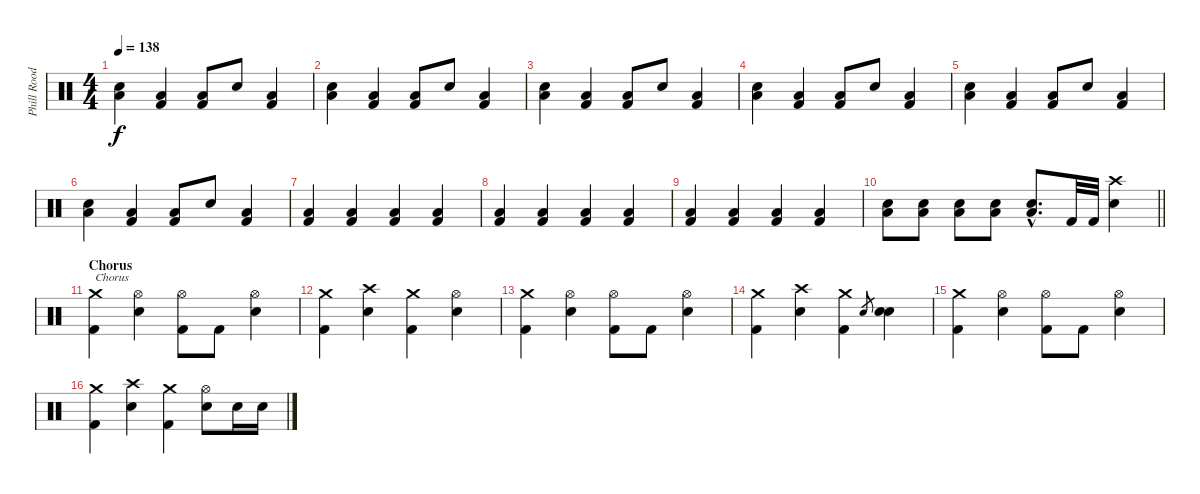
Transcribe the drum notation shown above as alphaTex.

\track ("Phill Rood" "Phill Rood") {instrument percussion}
\staff {score}
\articulation defaults
\ts (4 4)
\tempo 138
\clef neutral
\ks c
("Snare (hit) 2" "Low Tom (hit)").4{dy f} ("Kick (hit) 2" "Low Tom (hit)").4 ("Kick (hit) 2" "Low Tom (hit)").8 "Snare (hit) 2".8 ("Kick (hit) 2" "Low Tom (hit)").4 |
("Snare (hit) 2" "Low Tom (hit)").4 ("Kick (hit) 2" "Low Tom (hit)").4 ("Kick (hit) 2" "Low Tom (hit)").8 "Snare (hit) 2".8 ("Kick (hit) 2" "Low Tom (hit)").4 |
("Snare (hit) 2" "Low Tom (hit)").4 ("Kick (hit) 2" "Low Tom (hit)").4 ("Kick (hit) 2" "Low Tom (hit)").8 "Snare (hit) 2".8 ("Kick (hit) 2" "Low Tom (hit)").4 |
("Snare (hit) 2" "Low Tom (hit)").4 ("Kick (hit) 2" "Low Tom (hit)").4 ("Kick (hit) 2" "Low Tom (hit)").8 "Snare (hit) 2".8 ("Kick (hit) 2" "Low Tom (hit)").4 |
("Snare (hit) 2" "Low Tom (hit)").4 ("Kick (hit) 2" "Low Tom (hit)").4 ("Kick (hit) 2" "Low Tom (hit)").8 "Snare (hit) 2".8 ("Kick (hit) 2" "Low Tom (hit)").4 |
("Snare (hit) 2" "Low Tom (hit)").4 ("Kick (hit) 2" "Low Tom (hit)").4 ("Kick (hit) 2" "Low Tom (hit)").8 "Snare (hit) 2".8 ("Kick (hit) 2" "Low Tom (hit)").4 |
("Kick (hit) 2" "Low Tom (hit)").4 ("Kick (hit) 2" "Low Tom (hit)").4 ("Kick (hit) 2" "Low Tom (hit)").4 ("Kick (hit) 2" "Low Tom (hit)").4 |
("Kick (hit) 2" "Low Tom (hit)").4 ("Kick (hit) 2" "Low Tom (hit)").4 ("Kick (hit) 2" "Low Tom (hit)").4 ("Kick (hit) 2" "Low Tom (hit)").4 |
("Kick (hit) 2" "Low Tom (hit)").4 ("Kick (hit) 2" "Low Tom (hit)").4 ("Kick (hit) 2" "Low Tom (hit)").4 ("Kick (hit) 2" "Low Tom (hit)").4 |
\barLineRight lightlight
("Snare (hit) 2" "Low Tom (hit)").8 ("Snare (hit) 2" "Low Tom (hit)").8 ("Snare (hit) 2" "Low Tom (hit)").8 ("Snare (hit) 2" "Low Tom (hit)").8 ("Snare (hit) 2"{hac} "Low Tom (hit)"{hac}).8{d} "Kick (hit) 2".32 "Kick (hit) 2".32 ("Snare (hit) 2" "Crash high (hit)").4 |
\section ("" "Chorus")
("Kick (hit) 2" "Crash medium (hit)").4{txt "Chorus"} ("Snare (hit) 2" "Hi-Hat (open)").4 ("Kick (hit) 2" "Hi-Hat (open)").8 "Kick (hit) 2".8 ("Snare (hit) 2" "Hi-Hat (open)").4 |
("Kick (hit) 2" "Crash medium (hit)").4 ("Snare (hit) 2" "Crash high (hit)").4 ("Kick (hit) 2" "Crash medium (hit)").4 ("Snare (hit) 2" "Hi-Hat (open)").4 |
("Kick (hit) 2" "Crash medium (hit)").4 ("Snare (hit) 2" "Hi-Hat (open)").4 ("Kick (hit) 2" "Hi-Hat (open)").8 "Kick (hit) 2".8 ("Snare (hit) 2" "Hi-Hat (open)").4 |
("Kick (hit) 2" "Crash medium (hit)").4 ("Snare (hit) 2" "Crash high (hit)").4 ("Kick (hit) 2" "Crash medium (hit)").4 "Snare (hit) 2".8{gr} ("Snare (hit) 2" "Snare (hit) 2").4 |
("Kick (hit) 2" "Crash medium (hit)").4 ("Snare (hit) 2" "Hi-Hat (open)").4 ("Kick (hit) 2" "Hi-Hat (open)").8 "Kick (hit) 2".8 ("Snare (hit) 2" "Hi-Hat (open)").4 |
("Kick (hit) 2" "Crash medium (hit)").4 ("Snare (hit) 2" "Crash high (hit)").4 ("Kick (hit) 2" "Crash medium (hit)").4 ("Snare (hit) 2" "Hi-Hat (open)").8 "Snare (hit) 2".16 "Snare (hit) 2".16
